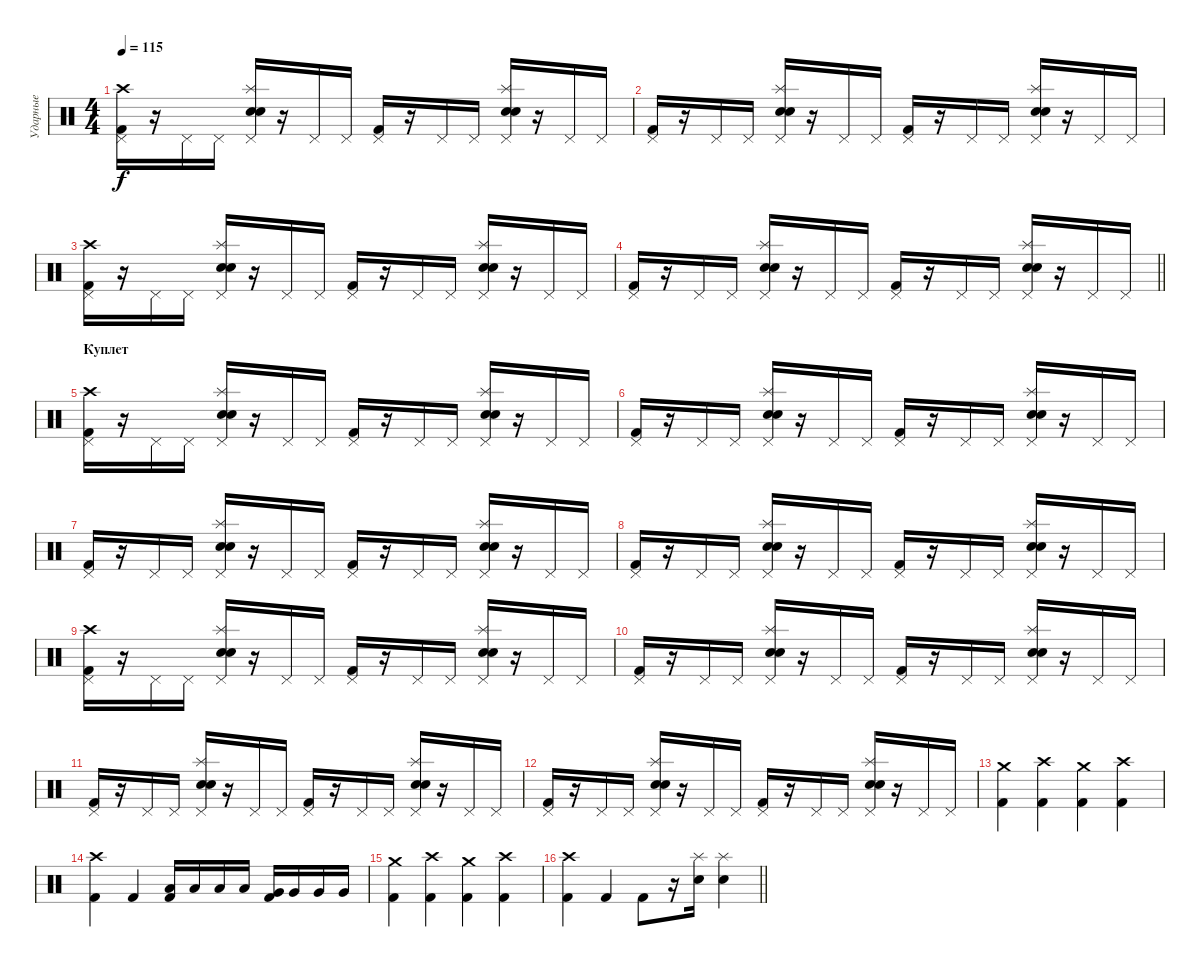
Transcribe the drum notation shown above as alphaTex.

\track ("Ударные" "Ударные") {instrument percussion}
\staff {score}
\articulation defaults
\ts (4 4)
\tempo 115
\clef neutral
\ks c
("Crash high (hit)" "Pedal Hi-Hat (hit)" "Kick (hit) 2").16{dy f} r.16 "Pedal Hi-Hat (hit)".16 "Pedal Hi-Hat (hit)".16 ("Splash (hit)" "Pedal Hi-Hat (hit)" "Electric Snare (hit)" "Snare (hit) 2").16 r.16 "Pedal Hi-Hat (hit)".16 "Pedal Hi-Hat (hit)".16 ("Pedal Hi-Hat (hit)" "Kick (hit) 2").16 r.16 "Pedal Hi-Hat (hit)".16 "Pedal Hi-Hat (hit)".16 ("Splash (hit)" "Pedal Hi-Hat (hit)" "Electric Snare (hit)" "Snare (hit) 2").16 r.16 "Pedal Hi-Hat (hit)".16 "Pedal Hi-Hat (hit)".16 |
("Pedal Hi-Hat (hit)" "Kick (hit) 2").16 r.16 "Pedal Hi-Hat (hit)".16 "Pedal Hi-Hat (hit)".16 ("Splash (hit)" "Pedal Hi-Hat (hit)" "Electric Snare (hit)" "Snare (hit) 2").16 r.16 "Pedal Hi-Hat (hit)".16 "Pedal Hi-Hat (hit)".16 ("Pedal Hi-Hat (hit)" "Kick (hit) 2").16 r.16 "Pedal Hi-Hat (hit)".16 "Pedal Hi-Hat (hit)".16 ("Splash (hit)" "Pedal Hi-Hat (hit)" "Electric Snare (hit)" "Snare (hit) 2").16 r.16 "Pedal Hi-Hat (hit)".16 "Pedal Hi-Hat (hit)".16 |
("Crash high (hit)" "Pedal Hi-Hat (hit)" "Kick (hit) 2").16 r.16 "Pedal Hi-Hat (hit)".16 "Pedal Hi-Hat (hit)".16 ("Splash (hit)" "Pedal Hi-Hat (hit)" "Electric Snare (hit)" "Snare (hit) 2").16 r.16 "Pedal Hi-Hat (hit)".16 "Pedal Hi-Hat (hit)".16 ("Pedal Hi-Hat (hit)" "Kick (hit) 2").16 r.16 "Pedal Hi-Hat (hit)".16 "Pedal Hi-Hat (hit)".16 ("Splash (hit)" "Pedal Hi-Hat (hit)" "Electric Snare (hit)" "Snare (hit) 2").16 r.16 "Pedal Hi-Hat (hit)".16 "Pedal Hi-Hat (hit)".16 |
\barLineRight lightlight
("Pedal Hi-Hat (hit)" "Kick (hit) 2").16 r.16 "Pedal Hi-Hat (hit)".16 "Pedal Hi-Hat (hit)".16 ("Splash (hit)" "Pedal Hi-Hat (hit)" "Electric Snare (hit)" "Snare (hit) 2").16 r.16 "Pedal Hi-Hat (hit)".16 "Pedal Hi-Hat (hit)".16 ("Pedal Hi-Hat (hit)" "Kick (hit) 2").16 r.16 "Pedal Hi-Hat (hit)".16 "Pedal Hi-Hat (hit)".16 ("Splash (hit)" "Pedal Hi-Hat (hit)" "Electric Snare (hit)" "Snare (hit) 2").16 r.16 "Pedal Hi-Hat (hit)".16 "Pedal Hi-Hat (hit)".16 |
\section ("" "Куплет")
("Crash high (hit)" "Pedal Hi-Hat (hit)" "Kick (hit) 2").16 r.16 "Pedal Hi-Hat (hit)".16 "Pedal Hi-Hat (hit)".16 ("Splash (hit)" "Pedal Hi-Hat (hit)" "Electric Snare (hit)" "Snare (hit) 2").16 r.16 "Pedal Hi-Hat (hit)".16 "Pedal Hi-Hat (hit)".16 ("Pedal Hi-Hat (hit)" "Kick (hit) 2").16 r.16 "Pedal Hi-Hat (hit)".16 "Pedal Hi-Hat (hit)".16 ("Splash (hit)" "Pedal Hi-Hat (hit)" "Electric Snare (hit)" "Snare (hit) 2").16 r.16 "Pedal Hi-Hat (hit)".16 "Pedal Hi-Hat (hit)".16 |
("Pedal Hi-Hat (hit)" "Kick (hit) 2").16 r.16 "Pedal Hi-Hat (hit)".16 "Pedal Hi-Hat (hit)".16 ("Splash (hit)" "Pedal Hi-Hat (hit)" "Electric Snare (hit)" "Snare (hit) 2").16 r.16 "Pedal Hi-Hat (hit)".16 "Pedal Hi-Hat (hit)".16 ("Pedal Hi-Hat (hit)" "Kick (hit) 2").16 r.16 "Pedal Hi-Hat (hit)".16 "Pedal Hi-Hat (hit)".16 ("Splash (hit)" "Pedal Hi-Hat (hit)" "Electric Snare (hit)" "Snare (hit) 2").16 r.16 "Pedal Hi-Hat (hit)".16 "Pedal Hi-Hat (hit)".16 |
("Pedal Hi-Hat (hit)" "Kick (hit) 2").16 r.16 "Pedal Hi-Hat (hit)".16 "Pedal Hi-Hat (hit)".16 ("Splash (hit)" "Pedal Hi-Hat (hit)" "Electric Snare (hit)" "Snare (hit) 2").16 r.16 "Pedal Hi-Hat (hit)".16 "Pedal Hi-Hat (hit)".16 ("Pedal Hi-Hat (hit)" "Kick (hit) 2").16 r.16 "Pedal Hi-Hat (hit)".16 "Pedal Hi-Hat (hit)".16 ("Splash (hit)" "Pedal Hi-Hat (hit)" "Electric Snare (hit)" "Snare (hit) 2").16 r.16 "Pedal Hi-Hat (hit)".16 "Pedal Hi-Hat (hit)".16 |
("Pedal Hi-Hat (hit)" "Kick (hit) 2").16 r.16 "Pedal Hi-Hat (hit)".16 "Pedal Hi-Hat (hit)".16 ("Splash (hit)" "Pedal Hi-Hat (hit)" "Electric Snare (hit)" "Snare (hit) 2").16 r.16 "Pedal Hi-Hat (hit)".16 "Pedal Hi-Hat (hit)".16 ("Pedal Hi-Hat (hit)" "Kick (hit) 2").16 r.16 "Pedal Hi-Hat (hit)".16 "Pedal Hi-Hat (hit)".16 ("Splash (hit)" "Pedal Hi-Hat (hit)" "Electric Snare (hit)" "Snare (hit) 2").16 r.16 "Pedal Hi-Hat (hit)".16 "Pedal Hi-Hat (hit)".16 |
("Crash high (hit)" "Pedal Hi-Hat (hit)" "Kick (hit) 2").16 r.16 "Pedal Hi-Hat (hit)".16 "Pedal Hi-Hat (hit)".16 ("Splash (hit)" "Pedal Hi-Hat (hit)" "Electric Snare (hit)" "Snare (hit) 2").16 r.16 "Pedal Hi-Hat (hit)".16 "Pedal Hi-Hat (hit)".16 ("Pedal Hi-Hat (hit)" "Kick (hit) 2").16 r.16 "Pedal Hi-Hat (hit)".16 "Pedal Hi-Hat (hit)".16 ("Splash (hit)" "Pedal Hi-Hat (hit)" "Electric Snare (hit)" "Snare (hit) 2").16 r.16 "Pedal Hi-Hat (hit)".16 "Pedal Hi-Hat (hit)".16 |
("Pedal Hi-Hat (hit)" "Kick (hit) 2").16 r.16 "Pedal Hi-Hat (hit)".16 "Pedal Hi-Hat (hit)".16 ("Splash (hit)" "Pedal Hi-Hat (hit)" "Electric Snare (hit)" "Snare (hit) 2").16 r.16 "Pedal Hi-Hat (hit)".16 "Pedal Hi-Hat (hit)".16 ("Pedal Hi-Hat (hit)" "Kick (hit) 2").16 r.16 "Pedal Hi-Hat (hit)".16 "Pedal Hi-Hat (hit)".16 ("Splash (hit)" "Pedal Hi-Hat (hit)" "Electric Snare (hit)" "Snare (hit) 2").16 r.16 "Pedal Hi-Hat (hit)".16 "Pedal Hi-Hat (hit)".16 |
("Pedal Hi-Hat (hit)" "Kick (hit) 2").16 r.16 "Pedal Hi-Hat (hit)".16 "Pedal Hi-Hat (hit)".16 ("Splash (hit)" "Pedal Hi-Hat (hit)" "Electric Snare (hit)" "Snare (hit) 2").16 r.16 "Pedal Hi-Hat (hit)".16 "Pedal Hi-Hat (hit)".16 ("Pedal Hi-Hat (hit)" "Kick (hit) 2").16 r.16 "Pedal Hi-Hat (hit)".16 "Pedal Hi-Hat (hit)".16 ("Splash (hit)" "Pedal Hi-Hat (hit)" "Electric Snare (hit)" "Snare (hit) 2").16 r.16 "Pedal Hi-Hat (hit)".16 "Pedal Hi-Hat (hit)".16 |
("Pedal Hi-Hat (hit)" "Kick (hit) 2").16 r.16 "Pedal Hi-Hat (hit)".16 "Pedal Hi-Hat (hit)".16 ("Splash (hit)" "Pedal Hi-Hat (hit)" "Electric Snare (hit)" "Snare (hit) 2").16 r.16 "Pedal Hi-Hat (hit)".16 "Pedal Hi-Hat (hit)".16 ("Pedal Hi-Hat (hit)" "Kick (hit) 2").16 r.16 "Pedal Hi-Hat (hit)".16 "Pedal Hi-Hat (hit)".16 ("Splash (hit)" "Pedal Hi-Hat (hit)" "Electric Snare (hit)" "Snare (hit) 2").16 r.16 "Pedal Hi-Hat (hit)".16 "Pedal Hi-Hat (hit)".16 |
("Crash medium (hit)" "Kick (hit) 2").4 ("Crash high (hit)" "Kick (hit) 2").4 ("Crash medium (hit)" "Kick (hit) 2").4 ("Crash high (hit)" "Kick (hit) 2").4 |
("Crash high (hit)" "Kick (hit) 2").4 "Kick (hit) 2".4 ("Low Tom (hit)" "Kick (hit) 2").16 "Low Tom (hit)".16 "Low Tom (hit)".16 "Low Tom (hit)".16 ("Very Low Tom (hit)" "Kick (hit) 2").16 "Very Low Tom (hit)".16 "Very Low Tom (hit)".16 "Very Low Tom (hit)".16 |
("Crash medium (hit)" "Kick (hit) 2").4 ("Crash high (hit)" "Kick (hit) 2").4 ("Crash medium (hit)" "Kick (hit) 2").4 ("Crash high (hit)" "Kick (hit) 2").4 |
\barLineRight lightlight
("Crash high (hit)" "Kick (hit) 2").4 "Kick (hit) 2".4 "Kick (hit) 2".8 r.16 ("Splash (hit)" "Electric Snare (hit)").16 ("Splash (hit)" "Electric Snare (hit)").4
